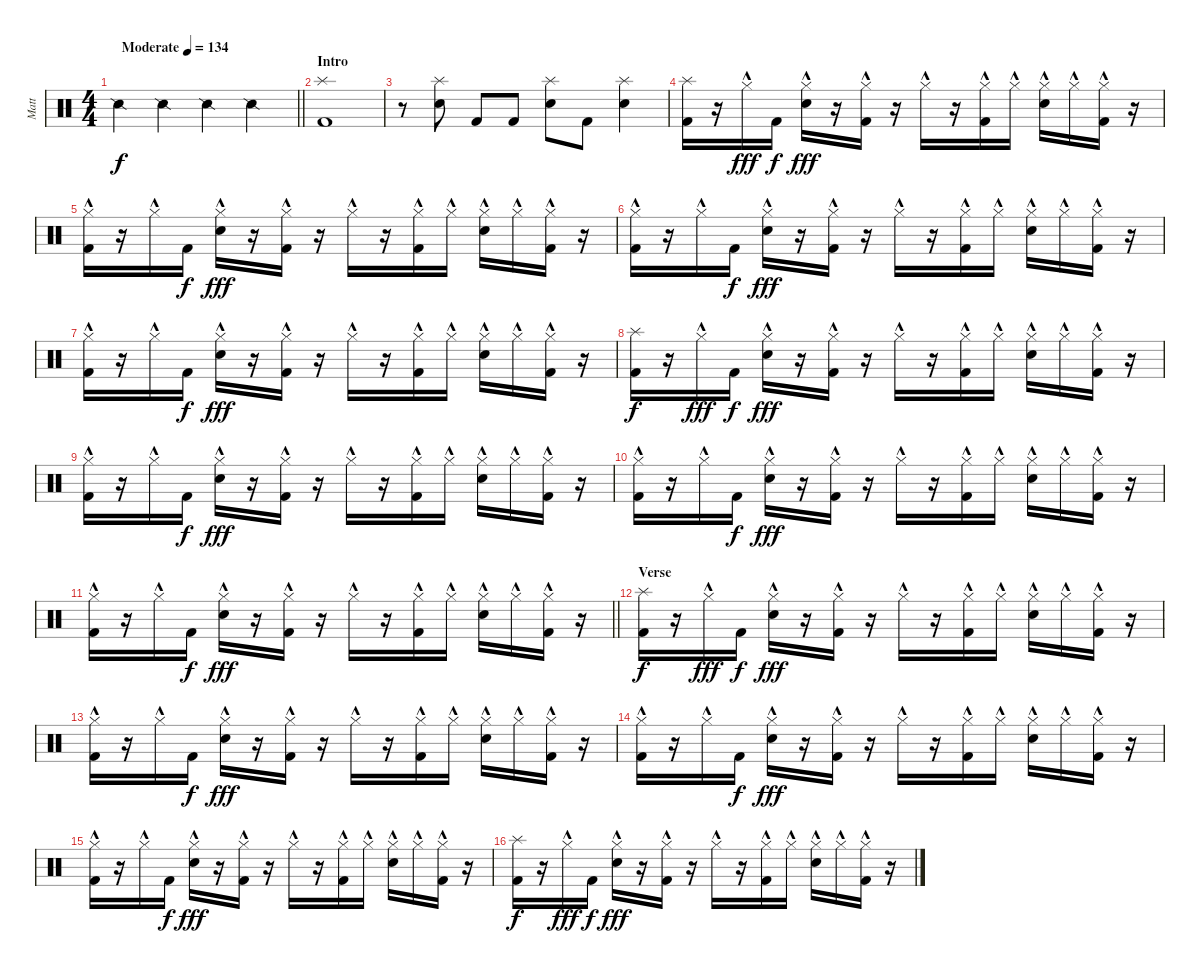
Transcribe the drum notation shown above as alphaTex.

\track ("Matt" "Matt") {instrument percussion}
\staff {score}
\articulation defaults
\ts (4 4)
\tempo (134 "Moderate")
\clef neutral
\barLineRight lightlight
\ks c "Snare (side stick) 2".4{dy f} "Snare (side stick) 2".4 "Snare (side stick) 2".4 "Snare (side stick) 2".4
|
\section ("" "Intro")
("Splash (hit)" "Kick (hit) 2").1 |
r.8 ("Splash (hit)" "Snare (hit) 2").8 "Kick (hit) 2".8 "Kick (hit) 2".8 ("Splash (hit)" "Snare (hit) 2").8 "Kick (hit) 2".8 ("Splash (hit)" "Snare (hit) 2").4 |
("Splash (hit)" "Kick (hit) 2").16 r.16 "Hi-Hat (closed)"{hac}.16{dy fff} "Kick (hit) 2".16{dy f} ("Hi-Hat (closed)"{hac} "Snare (hit) 2").16{dy fff} r.16 ("Hi-Hat (closed)"{hac} "Kick (hit) 2").16 r.16 "Hi-Hat (closed)"{hac}.16 r.16 ("Hi-Hat (closed)"{hac} "Kick (hit) 2").16 "Hi-Hat (closed)"{hac}.16 ("Hi-Hat (closed)"{hac} "Snare (hit) 2").16 "Hi-Hat (closed)"{hac}.16 ("Hi-Hat (closed)"{hac} "Kick (hit) 2").16 r.16 |
("Hi-Hat (closed)"{hac} "Kick (hit) 2").16 r.16 "Hi-Hat (closed)"{hac}.16 "Kick (hit) 2".16{dy f} ("Hi-Hat (closed)"{hac} "Snare (hit) 2").16{dy fff} r.16 ("Hi-Hat (closed)"{hac} "Kick (hit) 2").16 r.16 "Hi-Hat (closed)"{hac}.16 r.16 ("Hi-Hat (closed)"{hac} "Kick (hit) 2").16 "Hi-Hat (closed)"{hac}.16 ("Hi-Hat (closed)"{hac} "Snare (hit) 2").16 "Hi-Hat (closed)"{hac}.16 ("Hi-Hat (closed)"{hac} "Kick (hit) 2").16 r.16 |
("Hi-Hat (closed)"{hac} "Kick (hit) 2").16 r.16 "Hi-Hat (closed)"{hac}.16 "Kick (hit) 2".16{dy f} ("Hi-Hat (closed)"{hac} "Snare (hit) 2").16{dy fff} r.16 ("Hi-Hat (closed)"{hac} "Kick (hit) 2").16 r.16 "Hi-Hat (closed)"{hac}.16 r.16 ("Hi-Hat (closed)"{hac} "Kick (hit) 2").16 "Hi-Hat (closed)"{hac}.16 ("Hi-Hat (closed)"{hac} "Snare (hit) 2").16 "Hi-Hat (closed)"{hac}.16 ("Hi-Hat (closed)"{hac} "Kick (hit) 2").16 r.16 |
("Hi-Hat (closed)"{hac} "Kick (hit) 2").16 r.16 "Hi-Hat (closed)"{hac}.16 "Kick (hit) 2".16{dy f} ("Hi-Hat (closed)"{hac} "Snare (hit) 2").16{dy fff} r.16 ("Hi-Hat (closed)"{hac} "Kick (hit) 2").16 r.16 "Hi-Hat (closed)"{hac}.16 r.16 ("Hi-Hat (closed)"{hac} "Kick (hit) 2").16 "Hi-Hat (closed)"{hac}.16 ("Hi-Hat (closed)"{hac} "Snare (hit) 2").16 "Hi-Hat (closed)"{hac}.16 ("Hi-Hat (closed)"{hac} "Kick (hit) 2").16 r.16 |
("Splash (hit)" "Kick (hit) 2").16{dy f} r.16 "Hi-Hat (closed)"{hac}.16{dy fff} "Kick (hit) 2".16{dy f} ("Hi-Hat (closed)"{hac} "Snare (hit) 2").16{dy fff} r.16 ("Hi-Hat (closed)"{hac} "Kick (hit) 2").16 r.16 "Hi-Hat (closed)"{hac}.16 r.16 ("Hi-Hat (closed)"{hac} "Kick (hit) 2").16 "Hi-Hat (closed)"{hac}.16 ("Hi-Hat (closed)"{hac} "Snare (hit) 2").16 "Hi-Hat (closed)"{hac}.16 ("Hi-Hat (closed)"{hac} "Kick (hit) 2").16 r.16 |
("Hi-Hat (closed)"{hac} "Kick (hit) 2").16 r.16 "Hi-Hat (closed)"{hac}.16 "Kick (hit) 2".16{dy f} ("Hi-Hat (closed)"{hac} "Snare (hit) 2").16{dy fff} r.16 ("Hi-Hat (closed)"{hac} "Kick (hit) 2").16 r.16 "Hi-Hat (closed)"{hac}.16 r.16 ("Hi-Hat (closed)"{hac} "Kick (hit) 2").16 "Hi-Hat (closed)"{hac}.16 ("Hi-Hat (closed)"{hac} "Snare (hit) 2").16 "Hi-Hat (closed)"{hac}.16 ("Hi-Hat (closed)"{hac} "Kick (hit) 2").16 r.16 |
("Hi-Hat (closed)"{hac} "Kick (hit) 2").16 r.16 "Hi-Hat (closed)"{hac}.16 "Kick (hit) 2".16{dy f} ("Hi-Hat (closed)"{hac} "Snare (hit) 2").16{dy fff} r.16 ("Hi-Hat (closed)"{hac} "Kick (hit) 2").16 r.16 "Hi-Hat (closed)"{hac}.16 r.16 ("Hi-Hat (closed)"{hac} "Kick (hit) 2").16 "Hi-Hat (closed)"{hac}.16 ("Hi-Hat (closed)"{hac} "Snare (hit) 2").16 "Hi-Hat (closed)"{hac}.16 ("Hi-Hat (closed)"{hac} "Kick (hit) 2").16 r.16 |
\barLineRight lightlight
("Hi-Hat (closed)"{hac} "Kick (hit) 2").16 r.16 "Hi-Hat (closed)"{hac}.16 "Kick (hit) 2".16{dy f} ("Hi-Hat (closed)"{hac} "Snare (hit) 2").16{dy fff} r.16 ("Hi-Hat (closed)"{hac} "Kick (hit) 2").16 r.16 "Hi-Hat (closed)"{hac}.16 r.16 ("Hi-Hat (closed)"{hac} "Kick (hit) 2").16 "Hi-Hat (closed)"{hac}.16 ("Hi-Hat (closed)"{hac} "Snare (hit) 2").16 "Hi-Hat (closed)"{hac}.16 ("Hi-Hat (closed)"{hac} "Kick (hit) 2").16 r.16 |
\section ("" "Verse")
("Splash (hit)" "Kick (hit) 2").16{dy f} r.16 "Hi-Hat (closed)"{hac}.16{dy fff} "Kick (hit) 2".16{dy f} ("Hi-Hat (closed)"{hac} "Snare (hit) 2").16{dy fff} r.16 ("Hi-Hat (closed)"{hac} "Kick (hit) 2").16 r.16 "Hi-Hat (closed)"{hac}.16 r.16 ("Hi-Hat (closed)"{hac} "Kick (hit) 2").16 "Hi-Hat (closed)"{hac}.16 ("Hi-Hat (closed)"{hac} "Snare (hit) 2").16 "Hi-Hat (closed)"{hac}.16 ("Hi-Hat (closed)"{hac} "Kick (hit) 2").16 r.16 |
("Hi-Hat (closed)"{hac} "Kick (hit) 2").16 r.16 "Hi-Hat (closed)"{hac}.16 "Kick (hit) 2".16{dy f} ("Hi-Hat (closed)"{hac} "Snare (hit) 2").16{dy fff} r.16 ("Hi-Hat (closed)"{hac} "Kick (hit) 2").16 r.16 "Hi-Hat (closed)"{hac}.16 r.16 ("Hi-Hat (closed)"{hac} "Kick (hit) 2").16 "Hi-Hat (closed)"{hac}.16 ("Hi-Hat (closed)"{hac} "Snare (hit) 2").16 "Hi-Hat (closed)"{hac}.16 ("Hi-Hat (closed)"{hac} "Kick (hit) 2").16 r.16 |
("Hi-Hat (closed)"{hac} "Kick (hit) 2").16 r.16 "Hi-Hat (closed)"{hac}.16 "Kick (hit) 2".16{dy f} ("Hi-Hat (closed)"{hac} "Snare (hit) 2").16{dy fff} r.16 ("Hi-Hat (closed)"{hac} "Kick (hit) 2").16 r.16 "Hi-Hat (closed)"{hac}.16 r.16 ("Hi-Hat (closed)"{hac} "Kick (hit) 2").16 "Hi-Hat (closed)"{hac}.16 ("Hi-Hat (closed)"{hac} "Snare (hit) 2").16 "Hi-Hat (closed)"{hac}.16 ("Hi-Hat (closed)"{hac} "Kick (hit) 2").16 r.16 |
("Hi-Hat (closed)"{hac} "Kick (hit) 2").16 r.16 "Hi-Hat (closed)"{hac}.16 "Kick (hit) 2".16{dy f} ("Hi-Hat (closed)"{hac} "Snare (hit) 2").16{dy fff} r.16 ("Hi-Hat (closed)"{hac} "Kick (hit) 2").16 r.16 "Hi-Hat (closed)"{hac}.16 r.16 ("Hi-Hat (closed)"{hac} "Kick (hit) 2").16 "Hi-Hat (closed)"{hac}.16 ("Hi-Hat (closed)"{hac} "Snare (hit) 2").16 "Hi-Hat (closed)"{hac}.16 ("Hi-Hat (closed)"{hac} "Kick (hit) 2").16 r.16 |
("Splash (hit)" "Kick (hit) 2").16{dy f} r.16 "Hi-Hat (closed)"{hac}.16{dy fff} "Kick (hit) 2".16{dy f} ("Hi-Hat (closed)"{hac} "Snare (hit) 2").16{dy fff} r.16 ("Hi-Hat (closed)"{hac} "Kick (hit) 2").16 r.16 "Hi-Hat (closed)"{hac}.16 r.16 ("Hi-Hat (closed)"{hac} "Kick (hit) 2").16 "Hi-Hat (closed)"{hac}.16 ("Hi-Hat (closed)"{hac} "Snare (hit) 2").16 "Hi-Hat (closed)"{hac}.16 ("Hi-Hat (closed)"{hac} "Kick (hit) 2").16 r.16
